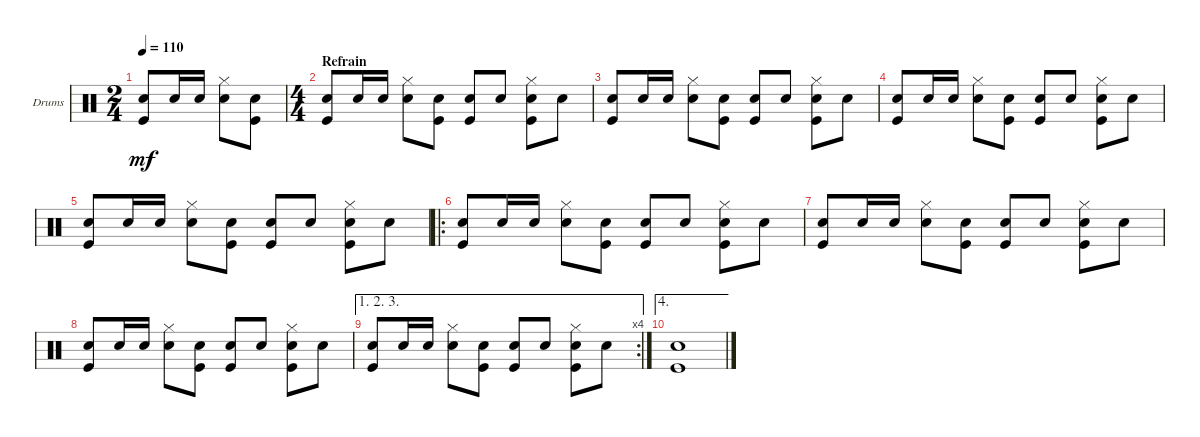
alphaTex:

\bracketExtendMode groupsimilarinstruments
\firstSystemTrackNameOrientation horizontal
\otherSystemsTrackNameOrientation horizontal
\track ("Drumkit" "Drums") {instrument percussion}
\staff {score}
\articulation defaults
\ts (2 4)
\tempo 110
\clef neutral
\ks c
("Kick (hit)" "Snare (hit) 2").8{dy mf} "Snare (hit) 2".16 "Snare (hit) 2".16 ("Snare (hit) 2" "Hi-Hat (closed)").8 ("Kick (hit)" "Snare (hit) 2").8 |
\ts (4 4)
\section ("" "Refrain")
("Kick (hit)" "Snare (hit) 2").8 "Snare (hit) 2".16 "Snare (hit) 2".16 ("Snare (hit) 2" "Hi-Hat (closed)").8 ("Kick (hit)" "Snare (hit) 2").8 ("Kick (hit)" "Snare (hit) 2").8 "Snare (hit) 2".8 ("Kick (hit)" "Snare (hit) 2" "Hi-Hat (closed)").8 "Snare (hit) 2".8 |
("Kick (hit)" "Snare (hit) 2").8 "Snare (hit) 2".16 "Snare (hit) 2".16 ("Snare (hit) 2" "Hi-Hat (closed)").8 ("Kick (hit)" "Snare (hit) 2").8 ("Kick (hit)" "Snare (hit) 2").8 "Snare (hit) 2".8 ("Kick (hit)" "Snare (hit) 2" "Hi-Hat (closed)").8 "Snare (hit) 2".8 |
("Kick (hit)" "Snare (hit) 2").8 "Snare (hit) 2".16 "Snare (hit) 2".16 ("Snare (hit) 2" "Hi-Hat (closed)").8 ("Kick (hit)" "Snare (hit) 2").8 ("Kick (hit)" "Snare (hit) 2").8 "Snare (hit) 2".8 ("Kick (hit)" "Snare (hit) 2" "Hi-Hat (closed)").8 "Snare (hit) 2".8 |
("Kick (hit)" "Snare (hit) 2").8 "Snare (hit) 2".16 "Snare (hit) 2".16 ("Snare (hit) 2" "Hi-Hat (closed)").8 ("Kick (hit)" "Snare (hit) 2").8 ("Kick (hit)" "Snare (hit) 2").8 "Snare (hit) 2".8 ("Kick (hit)" "Snare (hit) 2" "Hi-Hat (closed)").8 "Snare (hit) 2".8 |
\ro
("Kick (hit)" "Snare (hit) 2").8 "Snare (hit) 2".16 "Snare (hit) 2".16 ("Snare (hit) 2" "Hi-Hat (closed)").8 ("Kick (hit)" "Snare (hit) 2").8 ("Kick (hit)" "Snare (hit) 2").8 "Snare (hit) 2".8 ("Kick (hit)" "Snare (hit) 2" "Hi-Hat (closed)").8 "Snare (hit) 2".8 |
("Kick (hit)" "Snare (hit) 2").8 "Snare (hit) 2".16 "Snare (hit) 2".16 ("Snare (hit) 2" "Hi-Hat (closed)").8 ("Kick (hit)" "Snare (hit) 2").8 ("Kick (hit)" "Snare (hit) 2").8 "Snare (hit) 2".8 ("Kick (hit)" "Snare (hit) 2" "Hi-Hat (closed)").8 "Snare (hit) 2".8 |
("Kick (hit)" "Snare (hit) 2").8 "Snare (hit) 2".16 "Snare (hit) 2".16 ("Snare (hit) 2" "Hi-Hat (closed)").8 ("Kick (hit)" "Snare (hit) 2").8 ("Kick (hit)" "Snare (hit) 2").8 "Snare (hit) 2".8 ("Kick (hit)" "Snare (hit) 2" "Hi-Hat (closed)").8 "Snare (hit) 2".8 |
\ae (1 2 3)
\rc 4
("Kick (hit)" "Snare (hit) 2").8 "Snare (hit) 2".16 "Snare (hit) 2".16 ("Snare (hit) 2" "Hi-Hat (closed)").8 ("Kick (hit)" "Snare (hit) 2").8 ("Kick (hit)" "Snare (hit) 2").8 "Snare (hit) 2".8 ("Kick (hit)" "Snare (hit) 2" "Hi-Hat (closed)").8 "Snare (hit) 2".8 |
\ae 4
("Kick (hit)" "Snare (hit) 2").1
